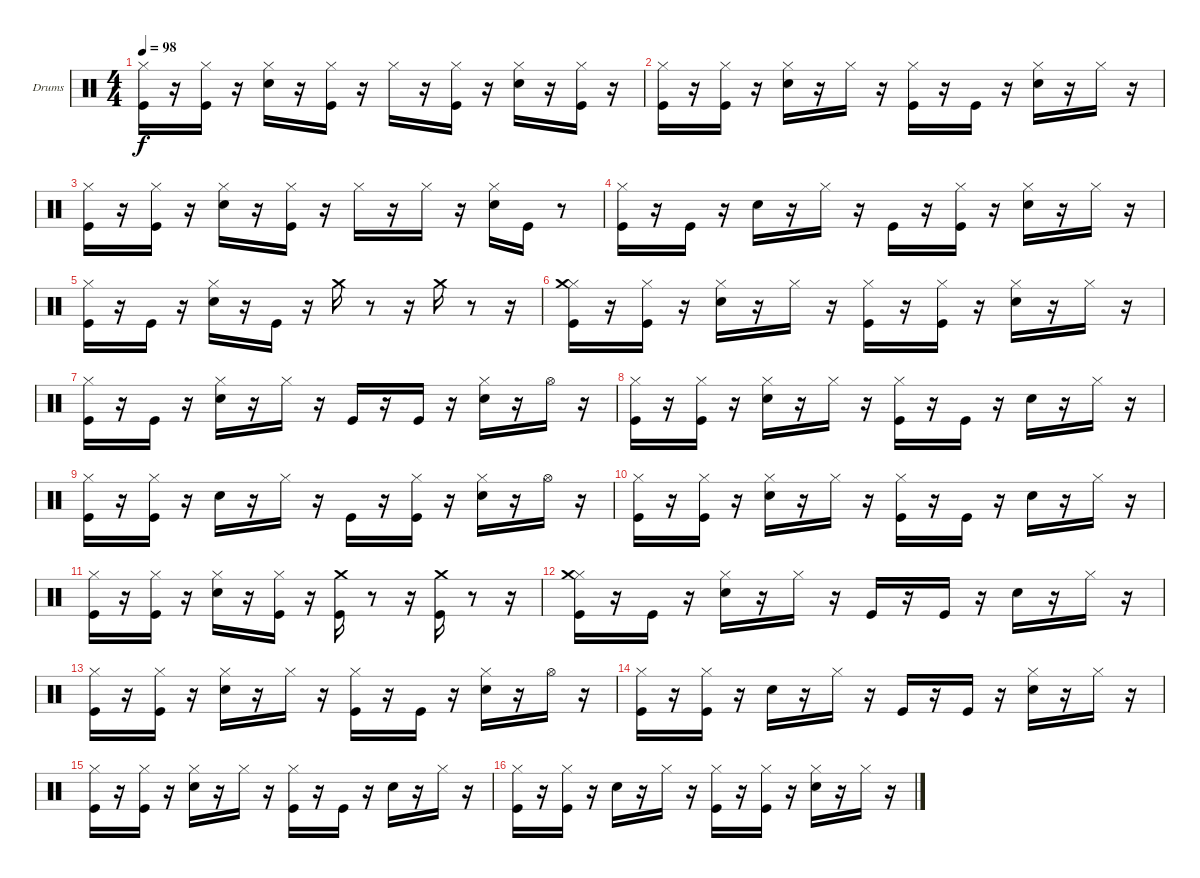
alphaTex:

\bracketExtendMode groupsimilarinstruments
\firstSystemTrackNameOrientation horizontal
\otherSystemsTrackNameOrientation horizontal
\track ("Drumkit" "Drums") {instrument percussion}
\staff {score}
\articulation defaults
\ts (4 4)
\tempo 98
\clef neutral
\ks c
("Kick (hit)" "Hi-Hat (closed)").16{dy f} r.16 ("Kick (hit)" "Hi-Hat (closed)").16 r.16 ("Snare (hit) 2" "Hi-Hat (closed)").16 r.16 ("Kick (hit)" "Hi-Hat (closed)").16 r.16 "Hi-Hat (closed)".16 r.16 ("Kick (hit)" "Hi-Hat (closed)").16 r.16 ("Snare (hit) 2" "Hi-Hat (closed)").16 r.16 ("Kick (hit)" "Hi-Hat (closed)").16 r.16 |
("Kick (hit)" "Hi-Hat (closed)").16 r.16 ("Kick (hit)" "Hi-Hat (closed)").16 r.16 ("Snare (hit) 2" "Hi-Hat (closed)").16 r.16 "Hi-Hat (closed)".16 r.16 ("Kick (hit)" "Hi-Hat (closed)").16 r.16 "Kick (hit)".16 r.16 ("Snare (hit) 2" "Hi-Hat (closed)").16 r.16 "Hi-Hat (closed)".16 r.16 |
("Kick (hit)" "Hi-Hat (closed)").16 r.16 ("Kick (hit)" "Hi-Hat (closed)").16 r.16 ("Snare (hit) 2" "Hi-Hat (closed)").16 r.16 ("Kick (hit)" "Hi-Hat (closed)").16 r.16 "Hi-Hat (closed)".16 r.16 "Hi-Hat (closed)".16 r.16 ("Snare (hit) 2" "Hi-Hat (closed)").16 "Kick (hit)".16 r.8 |
("Kick (hit)" "Hi-Hat (closed)").16 r.16 "Kick (hit)".16 r.16 "Snare (hit) 2".16 r.16 "Hi-Hat (closed)".16 r.16 "Kick (hit)".16 r.16 ("Kick (hit)" "Hi-Hat (closed)").16 r.16 ("Snare (hit) 2" "Hi-Hat (closed)").16 r.16 "Hi-Hat (closed)".16 r.16 |
("Kick (hit)" "Hi-Hat (closed)").16 r.16 "Kick (hit)".16 r.16 ("Snare (hit) 2" "Hi-Hat (closed)").16 r.16 "Kick (hit)".16 r.16 "Crash medium (hit)".16 r.8 r.16 "Crash medium (hit)".16 r.8 r.16 |
("Kick (hit)" "Hi-Hat (closed)" "Crash medium (hit)").16 r.16 ("Kick (hit)" "Hi-Hat (closed)").16 r.16 ("Snare (hit) 2" "Hi-Hat (closed)").16 r.16 "Hi-Hat (closed)".16 r.16 ("Kick (hit)" "Hi-Hat (closed)").16 r.16 ("Kick (hit)" "Hi-Hat (closed)").16 r.16 ("Snare (hit) 2" "Hi-Hat (closed)").16 r.16 "Hi-Hat (closed)".16 r.16 |
("Kick (hit)" "Hi-Hat (closed)").16 r.16 "Kick (hit)".16 r.16 ("Snare (hit) 2" "Hi-Hat (closed)").16 r.16 "Hi-Hat (closed)".16 r.16 "Kick (hit)".16 r.16 "Kick (hit)".16 r.16 ("Snare (hit) 2" "Hi-Hat (closed)").16 r.16 "Hi-Hat (open)".16 r.16 |
("Kick (hit)" "Hi-Hat (closed)").16 r.16 ("Kick (hit)" "Hi-Hat (closed)").16 r.16 ("Snare (hit) 2" "Hi-Hat (closed)").16 r.16 "Hi-Hat (closed)".16 r.16 ("Kick (hit)" "Hi-Hat (closed)").16 r.16 "Kick (hit)".16 r.16 "Snare (hit) 2".16 r.16 "Hi-Hat (closed)".16 r.16 |
("Kick (hit)" "Hi-Hat (closed)").16 r.16 ("Kick (hit)" "Hi-Hat (closed)").16 r.16 "Snare (hit) 2".16 r.16 "Hi-Hat (closed)".16 r.16 "Kick (hit)".16 r.16 ("Kick (hit)" "Hi-Hat (closed)").16 r.16 ("Snare (hit) 2" "Hi-Hat (closed)").16 r.16 "Hi-Hat (open)".16 r.16 |
("Kick (hit)" "Hi-Hat (closed)").16 r.16 ("Kick (hit)" "Hi-Hat (closed)").16 r.16 ("Snare (hit) 2" "Hi-Hat (closed)").16 r.16 "Hi-Hat (closed)".16 r.16 ("Kick (hit)" "Hi-Hat (closed)").16 r.16 "Kick (hit)".16 r.16 "Snare (hit) 2".16 r.16 "Hi-Hat (closed)".16 r.16 |
("Kick (hit)" "Hi-Hat (closed)").16 r.16 ("Kick (hit)" "Hi-Hat (closed)").16 r.16 ("Snare (hit) 2" "Hi-Hat (closed)").16 r.16 ("Kick (hit)" "Hi-Hat (closed)").16 r.16 ("Kick (hit)" "Crash medium (hit)").16 r.8 r.16 ("Kick (hit)" "Crash medium (hit)").16 r.8 r.16 |
("Kick (hit)" "Hi-Hat (closed)" "Crash medium (hit)").16 r.16 "Kick (hit)".16 r.16 ("Snare (hit) 2" "Hi-Hat (closed)").16 r.16 "Hi-Hat (closed)".16 r.16 "Kick (hit)".16 r.16 "Kick (hit)".16 r.16 "Snare (hit) 2".16 r.16 "Hi-Hat (closed)".16 r.16 |
("Kick (hit)" "Hi-Hat (closed)").16 r.16 ("Kick (hit)" "Hi-Hat (closed)").16 r.16 ("Snare (hit) 2" "Hi-Hat (closed)").16 r.16 "Hi-Hat (closed)".16 r.16 ("Kick (hit)" "Hi-Hat (closed)").16 r.16 "Kick (hit)".16 r.16 ("Snare (hit) 2" "Hi-Hat (closed)").16 r.16 "Hi-Hat (open)".16 r.16 |
("Kick (hit)" "Hi-Hat (closed)").16 r.16 ("Kick (hit)" "Hi-Hat (closed)").16 r.16 "Snare (hit) 2".16 r.16 "Hi-Hat (closed)".16 r.16 "Kick (hit)".16 r.16 "Kick (hit)".16 r.16 ("Snare (hit) 2" "Hi-Hat (closed)").16 r.16 "Hi-Hat (closed)".16 r.16 |
("Kick (hit)" "Hi-Hat (closed)").16 r.16 ("Kick (hit)" "Hi-Hat (closed)").16 r.16 ("Snare (hit) 2" "Hi-Hat (closed)").16 r.16 "Hi-Hat (closed)".16 r.16 ("Kick (hit)" "Hi-Hat (closed)").16 r.16 "Kick (hit)".16 r.16 "Snare (hit) 2".16 r.16 "Hi-Hat (closed)".16 r.16 |
("Kick (hit)" "Hi-Hat (closed)").16 r.16 ("Kick (hit)" "Hi-Hat (closed)").16 r.16 "Snare (hit) 2".16 r.16 "Hi-Hat (closed)".16 r.16 ("Kick (hit)" "Hi-Hat (closed)").16 r.16 ("Kick (hit)" "Hi-Hat (closed)").16 r.16 ("Snare (hit) 2" "Hi-Hat (closed)").16 r.16 "Hi-Hat (closed)".16 r.16
